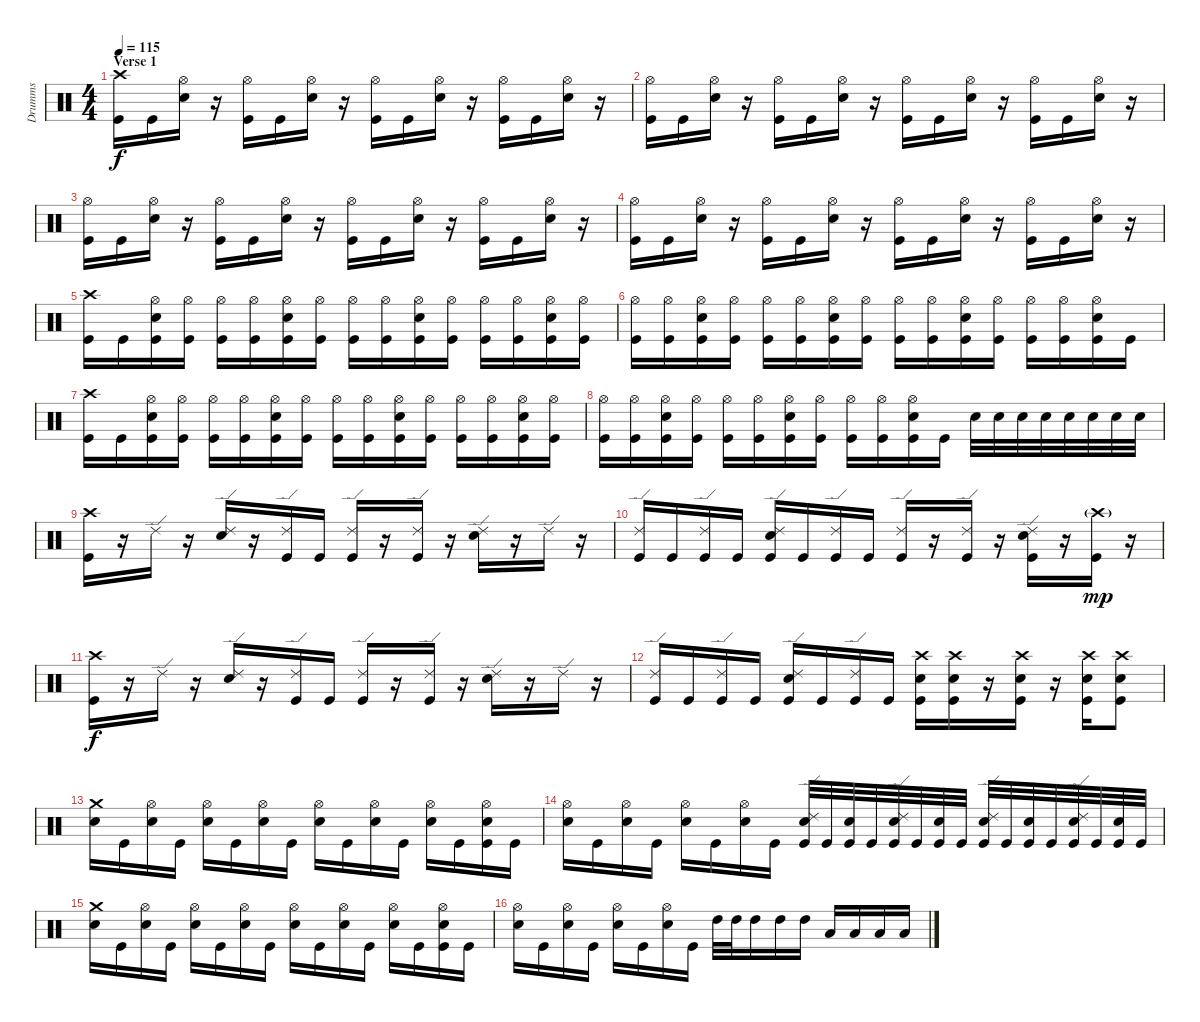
\track ("Drumms" "Drumms") {instrument percussion}
\staff {score}
\articulation defaults
\ts (4 4)
\section ("" "Verse 1")
\tempo 115
\clef neutral
\ks c
("Crash high (hit)" "Kick (hit)").16{dy f} "Kick (hit)".16 ("Hi-Hat (open)" "Snare (hit) 2").16 r.16 ("Hi-Hat (open)" "Kick (hit)").16 "Kick (hit)".16 ("Hi-Hat (open)" "Snare (hit) 2").16 r.16 ("Hi-Hat (open)" "Kick (hit)").16 "Kick (hit)".16 ("Hi-Hat (open)" "Snare (hit) 2").16 r.16 ("Hi-Hat (open)" "Kick (hit)").16 "Kick (hit)".16 ("Hi-Hat (open)" "Snare (hit) 2").16 r.16 |
("Hi-Hat (open)" "Kick (hit)").16 "Kick (hit)".16 ("Hi-Hat (open)" "Snare (hit) 2").16 r.16 ("Hi-Hat (open)" "Kick (hit)").16 "Kick (hit)".16 ("Hi-Hat (open)" "Snare (hit) 2").16 r.16 ("Hi-Hat (open)" "Kick (hit)").16 "Kick (hit)".16 ("Hi-Hat (open)" "Snare (hit) 2").16 r.16 ("Hi-Hat (open)" "Kick (hit)").16 "Kick (hit)".16 ("Hi-Hat (open)" "Snare (hit) 2").16 r.16 |
("Hi-Hat (open)" "Kick (hit)").16 "Kick (hit)".16 ("Hi-Hat (open)" "Snare (hit) 2").16 r.16 ("Hi-Hat (open)" "Kick (hit)").16 "Kick (hit)".16 ("Hi-Hat (open)" "Snare (hit) 2").16 r.16 ("Hi-Hat (open)" "Kick (hit)").16 "Kick (hit)".16 ("Hi-Hat (open)" "Snare (hit) 2").16 r.16 ("Hi-Hat (open)" "Kick (hit)").16 "Kick (hit)".16 ("Hi-Hat (open)" "Snare (hit) 2").16 r.16 |
("Hi-Hat (open)" "Kick (hit)").16 "Kick (hit)".16 ("Hi-Hat (open)" "Snare (hit) 2").16 r.16 ("Hi-Hat (open)" "Kick (hit)").16 "Kick (hit)".16 ("Hi-Hat (open)" "Snare (hit) 2").16 r.16 ("Hi-Hat (open)" "Kick (hit)").16 "Kick (hit)".16 ("Hi-Hat (open)" "Snare (hit) 2").16 r.16 ("Hi-Hat (open)" "Kick (hit)").16 "Kick (hit)".16 ("Hi-Hat (open)" "Snare (hit) 2").16 r.16 |
("Crash high (hit)" "Kick (hit)").16 "Kick (hit)".16 ("Hi-Hat (open)" "Snare (hit) 2" "Kick (hit)").16 ("Hi-Hat (open)" "Kick (hit)").16 ("Hi-Hat (open)" "Kick (hit)").16 ("Hi-Hat (open)" "Kick (hit)").16 ("Hi-Hat (open)" "Snare (hit) 2" "Kick (hit)").16 ("Hi-Hat (open)" "Kick (hit)").16 ("Hi-Hat (open)" "Kick (hit)").16 ("Hi-Hat (open)" "Kick (hit)").16 ("Hi-Hat (open)" "Snare (hit) 2" "Kick (hit)").16 ("Hi-Hat (open)" "Kick (hit)").16 ("Hi-Hat (open)" "Kick (hit)").16 ("Hi-Hat (open)" "Kick (hit)").16 ("Hi-Hat (open)" "Snare (hit) 2" "Kick (hit)").16 ("Hi-Hat (open)" "Kick (hit)").16 |
("Hi-Hat (open)" "Kick (hit)").16 ("Hi-Hat (open)" "Kick (hit)").16 ("Hi-Hat (open)" "Snare (hit) 2" "Kick (hit)").16 ("Hi-Hat (open)" "Kick (hit)").16 ("Hi-Hat (open)" "Kick (hit)").16 ("Hi-Hat (open)" "Kick (hit)").16 ("Hi-Hat (open)" "Snare (hit) 2" "Kick (hit)").16 ("Hi-Hat (open)" "Kick (hit)").16 ("Hi-Hat (open)" "Kick (hit)").16 ("Hi-Hat (open)" "Kick (hit)").16 ("Hi-Hat (open)" "Snare (hit) 2" "Kick (hit)").16 ("Hi-Hat (open)" "Kick (hit)").16 ("Hi-Hat (open)" "Kick (hit)").16 ("Hi-Hat (open)" "Kick (hit)").16 ("Hi-Hat (open)" "Snare (hit) 2" "Kick (hit)").16 "Kick (hit)".16 |
("Crash high (hit)" "Kick (hit)").16 "Kick (hit)".16 ("Hi-Hat (open)" "Snare (hit) 2" "Kick (hit)").16 ("Hi-Hat (open)" "Kick (hit)").16 ("Hi-Hat (open)" "Kick (hit)").16 ("Hi-Hat (open)" "Kick (hit)").16 ("Hi-Hat (open)" "Snare (hit) 2" "Kick (hit)").16 ("Hi-Hat (open)" "Kick (hit)").16 ("Hi-Hat (open)" "Kick (hit)").16 ("Hi-Hat (open)" "Kick (hit)").16 ("Hi-Hat (open)" "Snare (hit) 2" "Kick (hit)").16 ("Hi-Hat (open)" "Kick (hit)").16 ("Hi-Hat (open)" "Kick (hit)").16 ("Hi-Hat (open)" "Kick (hit)").16 ("Hi-Hat (open)" "Snare (hit) 2" "Kick (hit)").16 ("Hi-Hat (open)" "Kick (hit)").16 |
("Hi-Hat (open)" "Kick (hit)").16 ("Hi-Hat (open)" "Kick (hit)").16 ("Hi-Hat (open)" "Snare (hit) 2" "Kick (hit)").16 ("Hi-Hat (open)" "Kick (hit)").16 ("Hi-Hat (open)" "Kick (hit)").16 ("Hi-Hat (open)" "Kick (hit)").16 ("Hi-Hat (open)" "Snare (hit) 2" "Kick (hit)").16 ("Hi-Hat (open)" "Kick (hit)").16 ("Hi-Hat (open)" "Kick (hit)").16 ("Hi-Hat (open)" "Kick (hit)").16 ("Hi-Hat (open)" "Snare (hit) 2" "Kick (hit)").16 "Kick (hit)".16 "Snare (hit) 2".32 "Snare (hit) 2".32 "Snare (hit) 2".32 "Snare (hit) 2".32 "Snare (hit) 2".32 "Snare (hit) 2".32 "Snare (hit) 2".32 "Snare (hit) 2".32 |
("Crash high (hit)" "Kick (hit)").16 r.16 "Ride (edge) 2".16 r.16 ("Ride (edge) 2" "Snare (hit) 2").16 r.16 ("Ride (edge) 2" "Kick (hit)").16 "Kick (hit)".16 ("Ride (edge) 2" "Kick (hit)").16 r.16 ("Ride (edge) 2" "Kick (hit)").16 r.16 ("Ride (edge) 2" "Snare (hit) 2").16 r.16 "Ride (edge) 2".16 r.16 |
("Ride (edge) 2" "Kick (hit)").16 "Kick (hit)".16 ("Ride (edge) 2" "Kick (hit)").16 "Kick (hit)".16 ("Ride (edge) 2" "Snare (hit) 2" "Kick (hit)").16 "Kick (hit)".16 ("Ride (edge) 2" "Kick (hit)").16 "Kick (hit)".16 ("Ride (edge) 2" "Kick (hit)").16 r.16 ("Ride (edge) 2" "Kick (hit)").16 r.16 ("Ride (edge) 2" "Snare (hit) 2" "Kick (hit)").16 r.16 ("Crash high (hit)"{g} "Kick (hit)").16{dy mp} r.16 |
("Crash high (hit)" "Kick (hit)").16{dy f} r.16 "Ride (edge) 2".16 r.16 ("Ride (edge) 2" "Snare (hit) 2").16 r.16 ("Ride (edge) 2" "Kick (hit)").16 "Kick (hit)".16 ("Ride (edge) 2" "Kick (hit)").16 r.16 ("Ride (edge) 2" "Kick (hit)").16 r.16 ("Ride (edge) 2" "Snare (hit) 2").16 r.16 "Ride (edge) 2".16 r.16 |
("Ride (edge) 2" "Kick (hit)").16 "Kick (hit)".16 ("Ride (edge) 2" "Kick (hit)").16 "Kick (hit)".16 ("Ride (edge) 2" "Snare (hit) 2" "Kick (hit)").16 "Kick (hit)".16 ("Ride (edge) 2" "Kick (hit)").16 "Kick (hit)".16 ("Crash high (hit)" "Snare (hit) 2" "Kick (hit)").16 ("Crash high (hit)" "Snare (hit) 2" "Kick (hit)").16 r.16 ("Crash high (hit)" "Snare (hit) 2" "Kick (hit)").16 r.16 ("Crash high (hit)" "Snare (hit) 2" "Kick (hit)").16 ("Crash high (hit)" "Snare (hit) 2" "Kick (hit)").8 |
("Crash medium (hit)" "Snare (hit) 2").16 "Kick (hit)".16 ("Hi-Hat (open)" "Snare (hit) 2").16 "Kick (hit)".16 ("Hi-Hat (open)" "Snare (hit) 2").16 "Kick (hit)".16 ("Hi-Hat (open)" "Snare (hit) 2").16 "Kick (hit)".16 ("Hi-Hat (open)" "Snare (hit) 2").16 "Kick (hit)".16 ("Hi-Hat (open)" "Snare (hit) 2").16 "Kick (hit)".16 ("Hi-Hat (open)" "Snare (hit) 2").16 "Kick (hit)".16 ("Hi-Hat (open)" "Snare (hit) 2" "Kick (hit)").16 "Kick (hit)".16 |
("Hi-Hat (open)" "Snare (hit) 2").16 "Kick (hit)".16 ("Hi-Hat (open)" "Snare (hit) 2").16 "Kick (hit)".16 ("Hi-Hat (open)" "Snare (hit) 2").16 "Kick (hit)".16 ("Hi-Hat (open)" "Snare (hit) 2").16 "Kick (hit)".16 ("Ride (edge) 2" "Snare (hit) 2" "Kick (hit)").32 "Kick (hit)".32 ("Snare (hit) 2" "Kick (hit)").32 "Kick (hit)".32 ("Ride (edge) 2" "Snare (hit) 2" "Kick (hit)").32 "Kick (hit)".32 ("Snare (hit) 2" "Kick (hit)").32 "Kick (hit)".32 ("Ride (edge) 2" "Snare (hit) 2" "Kick (hit)").32 "Kick (hit)".32 ("Snare (hit) 2" "Kick (hit)").32 "Kick (hit)".32 ("Ride (edge) 2" "Snare (hit) 2" "Kick (hit)").32 "Kick (hit)".32 ("Snare (hit) 2" "Kick (hit)").32 "Kick (hit)".32 |
("Crash medium (hit)" "Snare (hit) 2").16 "Kick (hit)".16 ("Hi-Hat (open)" "Snare (hit) 2").16 "Kick (hit)".16 ("Hi-Hat (open)" "Snare (hit) 2").16 "Kick (hit)".16 ("Hi-Hat (open)" "Snare (hit) 2").16 "Kick (hit)".16 ("Hi-Hat (open)" "Snare (hit) 2").16 "Kick (hit)".16 ("Hi-Hat (open)" "Snare (hit) 2").16 "Kick (hit)".16 ("Hi-Hat (open)" "Snare (hit) 2").16 "Kick (hit)".16 ("Hi-Hat (open)" "Snare (hit) 2" "Kick (hit)").16 "Kick (hit)".16 |
("Hi-Hat (open)" "Snare (hit) 2").16 "Kick (hit)".16 ("Hi-Hat (open)" "Snare (hit) 2").16 "Kick (hit)".16 ("Hi-Hat (open)" "Snare (hit) 2").16 "Kick (hit)".16 ("Hi-Hat (open)" "Snare (hit) 2").16 "Kick (hit)".16 "High Tom (hit)".32 "High Tom (hit)".32 "High Tom (hit)".16 "High Tom (hit)".16 "High Tom (hit)".16 "Low Tom (hit)".16 "Low Tom (hit)".16 "Low Tom (hit)".16 "Low Tom (hit)".16
